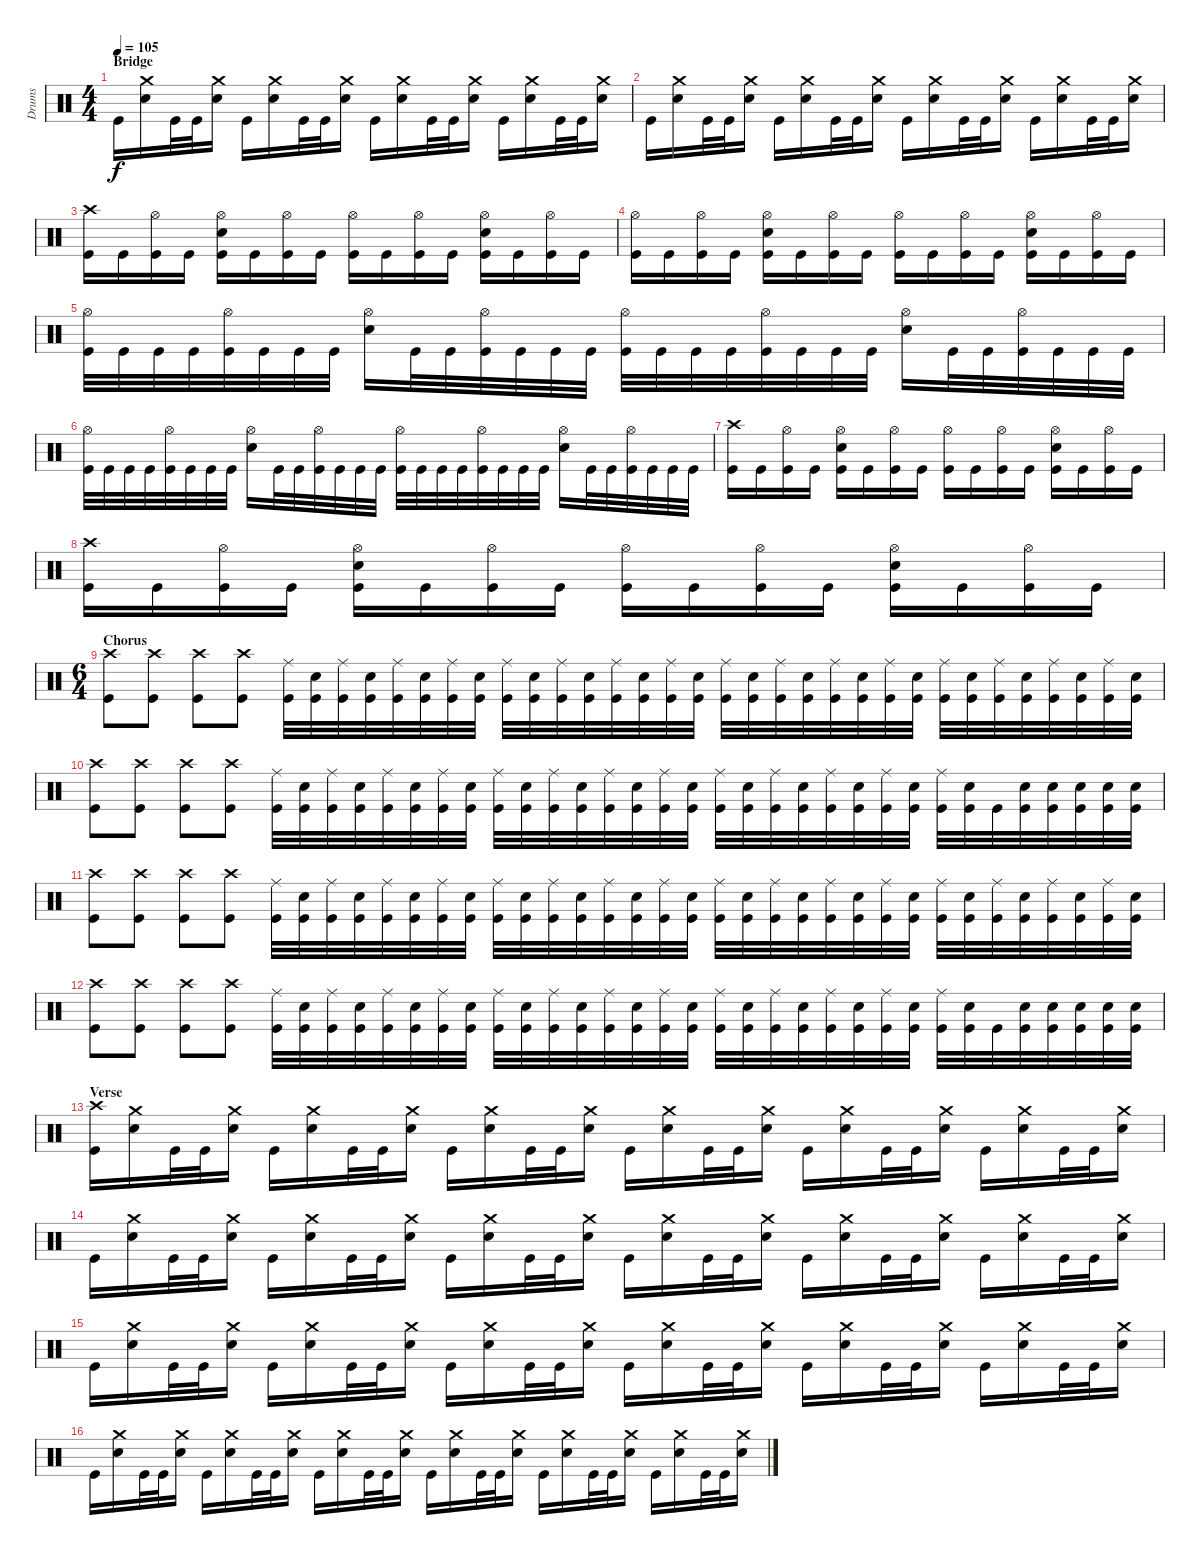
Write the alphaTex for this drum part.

\track ("Drums" "Drums") {instrument percussion}
\staff {score}
\articulation defaults
\ts (4 4)
\section ("" "Bridge")
\tempo 105
\clef neutral
\ks c "Kick (hit)".16{dy f}
("Crash medium (hit)" "Electric Snare (hit)").16 "Kick (hit)".32 "Kick (hit)".32 ("Crash medium (hit)" "Electric Snare (hit)").16 "Kick (hit)".16 ("Crash medium (hit)" "Electric Snare (hit)").16 "Kick (hit)".32 "Kick (hit)".32 ("Crash medium (hit)" "Electric Snare (hit)").16 "Kick (hit)".16 ("Crash medium (hit)" "Electric Snare (hit)").16 "Kick (hit)".32 "Kick (hit)".32 ("Crash medium (hit)" "Electric Snare (hit)").16 "Kick (hit)".16 ("Crash medium (hit)" "Electric Snare (hit)").16 "Kick (hit)".32 "Kick (hit)".32 ("Crash medium (hit)" "Electric Snare (hit)").16 |
"Kick (hit)".16 ("Crash medium (hit)" "Electric Snare (hit)").16 "Kick (hit)".32 "Kick (hit)".32 ("Crash medium (hit)" "Electric Snare (hit)").16 "Kick (hit)".16 ("Crash medium (hit)" "Electric Snare (hit)").16 "Kick (hit)".32 "Kick (hit)".32 ("Crash medium (hit)" "Electric Snare (hit)").16 "Kick (hit)".16 ("Crash medium (hit)" "Electric Snare (hit)").16 "Kick (hit)".32 "Kick (hit)".32 ("Crash medium (hit)" "Electric Snare (hit)").16 "Kick (hit)".16 ("Crash medium (hit)" "Electric Snare (hit)").16 "Kick (hit)".32 "Kick (hit)".32 ("Crash medium (hit)" "Electric Snare (hit)").16 |
("Crash high (hit)" "Kick (hit)").16 "Kick (hit)".16 ("Hi-Hat (open)" "Kick (hit)").16 "Kick (hit)".16 ("Hi-Hat (open)" "Electric Snare (hit)" "Kick (hit)").16 "Kick (hit)".16 ("Hi-Hat (open)" "Kick (hit)").16 "Kick (hit)".16 ("Hi-Hat (open)" "Kick (hit)").16 "Kick (hit)".16 ("Hi-Hat (open)" "Kick (hit)").16 "Kick (hit)".16 ("Hi-Hat (open)" "Electric Snare (hit)" "Kick (hit)").16 "Kick (hit)".16 ("Hi-Hat (open)" "Kick (hit)").16 "Kick (hit)".16 |
("Hi-Hat (open)" "Kick (hit)").16 "Kick (hit)".16 ("Hi-Hat (open)" "Kick (hit)").16 "Kick (hit)".16 ("Hi-Hat (open)" "Electric Snare (hit)" "Kick (hit)").16 "Kick (hit)".16 ("Hi-Hat (open)" "Kick (hit)").16 "Kick (hit)".16 ("Hi-Hat (open)" "Kick (hit)").16 "Kick (hit)".16 ("Hi-Hat (open)" "Kick (hit)").16 "Kick (hit)".16 ("Hi-Hat (open)" "Electric Snare (hit)" "Kick (hit)").16 "Kick (hit)".16 ("Hi-Hat (open)" "Kick (hit)").16 "Kick (hit)".16 |
("Hi-Hat (open)" "Kick (hit)").32 "Kick (hit)".32 "Kick (hit)".32 "Kick (hit)".32 ("Hi-Hat (open)" "Kick (hit)").32 "Kick (hit)".32 "Kick (hit)".32 "Kick (hit)".32 ("Hi-Hat (open)" "Electric Snare (hit)").16 "Kick (hit)".32 "Kick (hit)".32 ("Hi-Hat (open)" "Kick (hit)").32 "Kick (hit)".32 "Kick (hit)".32 "Kick (hit)".32 ("Hi-Hat (open)" "Kick (hit)").32 "Kick (hit)".32 "Kick (hit)".32 "Kick (hit)".32 ("Hi-Hat (open)" "Kick (hit)").32 "Kick (hit)".32 "Kick (hit)".32 "Kick (hit)".32 ("Hi-Hat (open)" "Electric Snare (hit)").16 "Kick (hit)".32 "Kick (hit)".32 ("Hi-Hat (open)" "Kick (hit)").32 "Kick (hit)".32 "Kick (hit)".32 "Kick (hit)".32 |
("Hi-Hat (open)" "Kick (hit)").32 "Kick (hit)".32 "Kick (hit)".32 "Kick (hit)".32 ("Hi-Hat (open)" "Kick (hit)").32 "Kick (hit)".32 "Kick (hit)".32 "Kick (hit)".32 ("Hi-Hat (open)" "Electric Snare (hit)").16 "Kick (hit)".32 "Kick (hit)".32 ("Hi-Hat (open)" "Kick (hit)").32 "Kick (hit)".32 "Kick (hit)".32 "Kick (hit)".32 ("Hi-Hat (open)" "Kick (hit)").32 "Kick (hit)".32 "Kick (hit)".32 "Kick (hit)".32 ("Hi-Hat (open)" "Kick (hit)").32 "Kick (hit)".32 "Kick (hit)".32 "Kick (hit)".32 ("Hi-Hat (open)" "Electric Snare (hit)").16 "Kick (hit)".32 "Kick (hit)".32 ("Hi-Hat (open)" "Kick (hit)").32 "Kick (hit)".32 "Kick (hit)".32 "Kick (hit)".32 |
("Crash high (hit)" "Kick (hit)").16 "Kick (hit)".16 ("Hi-Hat (open)" "Kick (hit)").16 "Kick (hit)".16 ("Hi-Hat (open)" "Electric Snare (hit)" "Kick (hit)").16 "Kick (hit)".16 ("Hi-Hat (open)" "Kick (hit)").16 "Kick (hit)".16 ("Hi-Hat (open)" "Kick (hit)").16 "Kick (hit)".16 ("Hi-Hat (open)" "Kick (hit)").16 "Kick (hit)".16 ("Hi-Hat (open)" "Electric Snare (hit)" "Kick (hit)").16 "Kick (hit)".16 ("Hi-Hat (open)" "Kick (hit)").16 "Kick (hit)".16 |
("Crash high (hit)" "Kick (hit)").16 "Kick (hit)".16 ("Hi-Hat (open)" "Kick (hit)").16 "Kick (hit)".16 ("Hi-Hat (open)" "Electric Snare (hit)" "Kick (hit)").16 "Kick (hit)".16 ("Hi-Hat (open)" "Kick (hit)").16 "Kick (hit)".16 ("Hi-Hat (open)" "Kick (hit)").16 "Kick (hit)".16 ("Hi-Hat (open)" "Kick (hit)").16 "Kick (hit)".16 ("Hi-Hat (open)" "Electric Snare (hit)" "Kick (hit)").16 "Kick (hit)".16 ("Hi-Hat (open)" "Kick (hit)").16 "Kick (hit)".16 |
\ts (6 4)
\section ("" "Chorus")
("Crash high (hit)" "Kick (hit)").8 ("Crash high (hit)" "Kick (hit)").8 ("Crash high (hit)" "Kick (hit)").8 ("Crash high (hit)" "Kick (hit)").8 ("Ride (middle)" "Kick (hit)").32 ("Electric Snare (hit)" "Kick (hit)").32 ("Ride (middle)" "Kick (hit)").32 ("Electric Snare (hit)" "Kick (hit)").32 ("Ride (middle)" "Kick (hit)").32 ("Electric Snare (hit)" "Kick (hit)").32 ("Ride (middle)" "Kick (hit)").32 ("Electric Snare (hit)" "Kick (hit)").32 ("Ride (middle)" "Kick (hit)").32 ("Electric Snare (hit)" "Kick (hit)").32 ("Ride (middle)" "Kick (hit)").32 ("Electric Snare (hit)" "Kick (hit)").32 ("Ride (middle)" "Kick (hit)").32 ("Electric Snare (hit)" "Kick (hit)").32 ("Ride (middle)" "Kick (hit)").32 ("Electric Snare (hit)" "Kick (hit)").32 ("Ride (middle)" "Kick (hit)").32 ("Electric Snare (hit)" "Kick (hit)").32 ("Ride (middle)" "Kick (hit)").32 ("Electric Snare (hit)" "Kick (hit)").32 ("Ride (middle)" "Kick (hit)").32 ("Electric Snare (hit)" "Kick (hit)").32 ("Ride (middle)" "Kick (hit)").32 ("Electric Snare (hit)" "Kick (hit)").32 ("Ride (middle)" "Kick (hit)").32 ("Electric Snare (hit)" "Kick (hit)").32 ("Ride (middle)" "Kick (hit)").32 ("Electric Snare (hit)" "Kick (hit)").32 ("Ride (middle)" "Kick (hit)").32 ("Electric Snare (hit)" "Kick (hit)").32 ("Ride (middle)" "Kick (hit)").32 ("Electric Snare (hit)" "Kick (hit)").32 |
("Crash high (hit)" "Kick (hit)").8 ("Crash high (hit)" "Kick (hit)").8 ("Crash high (hit)" "Kick (hit)").8 ("Crash high (hit)" "Kick (hit)").8 ("Ride (middle)" "Kick (hit)").32 ("Electric Snare (hit)" "Kick (hit)").32 ("Ride (middle)" "Kick (hit)").32 ("Electric Snare (hit)" "Kick (hit)").32 ("Ride (middle)" "Kick (hit)").32 ("Electric Snare (hit)" "Kick (hit)").32 ("Ride (middle)" "Kick (hit)").32 ("Electric Snare (hit)" "Kick (hit)").32 ("Ride (middle)" "Kick (hit)").32 ("Electric Snare (hit)" "Kick (hit)").32 ("Ride (middle)" "Kick (hit)").32 ("Electric Snare (hit)" "Kick (hit)").32 ("Ride (middle)" "Kick (hit)").32 ("Electric Snare (hit)" "Kick (hit)").32 ("Ride (middle)" "Kick (hit)").32 ("Electric Snare (hit)" "Kick (hit)").32 ("Ride (middle)" "Kick (hit)").32 ("Electric Snare (hit)" "Kick (hit)").32 ("Ride (middle)" "Kick (hit)").32 ("Electric Snare (hit)" "Kick (hit)").32 ("Ride (middle)" "Kick (hit)").32 ("Electric Snare (hit)" "Kick (hit)").32 ("Ride (middle)" "Kick (hit)").32 ("Electric Snare (hit)" "Kick (hit)").32 ("Ride (middle)" "Kick (hit)").32 ("Electric Snare (hit)" "Kick (hit)").32 "Kick (hit)".32 ("Electric Snare (hit)" "Kick (hit)").32 ("Electric Snare (hit)" "Kick (hit)").32 ("Electric Snare (hit)" "Kick (hit)").32 ("Electric Snare (hit)" "Kick (hit)").32 ("Electric Snare (hit)" "Kick (hit)").32 |
("Crash high (hit)" "Kick (hit)").8 ("Crash high (hit)" "Kick (hit)").8 ("Crash high (hit)" "Kick (hit)").8 ("Crash high (hit)" "Kick (hit)").8 ("Ride (middle)" "Kick (hit)").32 ("Electric Snare (hit)" "Kick (hit)").32 ("Ride (middle)" "Kick (hit)").32 ("Electric Snare (hit)" "Kick (hit)").32 ("Ride (middle)" "Kick (hit)").32 ("Electric Snare (hit)" "Kick (hit)").32 ("Ride (middle)" "Kick (hit)").32 ("Electric Snare (hit)" "Kick (hit)").32 ("Ride (middle)" "Kick (hit)").32 ("Electric Snare (hit)" "Kick (hit)").32 ("Ride (middle)" "Kick (hit)").32 ("Electric Snare (hit)" "Kick (hit)").32 ("Ride (middle)" "Kick (hit)").32 ("Electric Snare (hit)" "Kick (hit)").32 ("Ride (middle)" "Kick (hit)").32 ("Electric Snare (hit)" "Kick (hit)").32 ("Ride (middle)" "Kick (hit)").32 ("Electric Snare (hit)" "Kick (hit)").32 ("Ride (middle)" "Kick (hit)").32 ("Electric Snare (hit)" "Kick (hit)").32 ("Ride (middle)" "Kick (hit)").32 ("Electric Snare (hit)" "Kick (hit)").32 ("Ride (middle)" "Kick (hit)").32 ("Electric Snare (hit)" "Kick (hit)").32 ("Ride (middle)" "Kick (hit)").32 ("Electric Snare (hit)" "Kick (hit)").32 ("Ride (middle)" "Kick (hit)").32 ("Electric Snare (hit)" "Kick (hit)").32 ("Ride (middle)" "Kick (hit)").32 ("Electric Snare (hit)" "Kick (hit)").32 ("Ride (middle)" "Kick (hit)").32 ("Electric Snare (hit)" "Kick (hit)").32 |
("Crash high (hit)" "Kick (hit)").8 ("Crash high (hit)" "Kick (hit)").8 ("Crash high (hit)" "Kick (hit)").8 ("Crash high (hit)" "Kick (hit)").8 ("Ride (middle)" "Kick (hit)").32 ("Electric Snare (hit)" "Kick (hit)").32 ("Ride (middle)" "Kick (hit)").32 ("Electric Snare (hit)" "Kick (hit)").32 ("Ride (middle)" "Kick (hit)").32 ("Electric Snare (hit)" "Kick (hit)").32 ("Ride (middle)" "Kick (hit)").32 ("Electric Snare (hit)" "Kick (hit)").32 ("Ride (middle)" "Kick (hit)").32 ("Electric Snare (hit)" "Kick (hit)").32 ("Ride (middle)" "Kick (hit)").32 ("Electric Snare (hit)" "Kick (hit)").32 ("Ride (middle)" "Kick (hit)").32 ("Electric Snare (hit)" "Kick (hit)").32 ("Ride (middle)" "Kick (hit)").32 ("Electric Snare (hit)" "Kick (hit)").32 ("Ride (middle)" "Kick (hit)").32 ("Electric Snare (hit)" "Kick (hit)").32 ("Ride (middle)" "Kick (hit)").32 ("Electric Snare (hit)" "Kick (hit)").32 ("Ride (middle)" "Kick (hit)").32 ("Electric Snare (hit)" "Kick (hit)").32 ("Ride (middle)" "Kick (hit)").32 ("Electric Snare (hit)" "Kick (hit)").32 ("Ride (middle)" "Kick (hit)").32 ("Electric Snare (hit)" "Kick (hit)").32 "Kick (hit)".32 ("Electric Snare (hit)" "Kick (hit)").32 ("Electric Snare (hit)" "Kick (hit)").32 ("Electric Snare (hit)" "Kick (hit)").32 ("Electric Snare (hit)" "Kick (hit)").32 ("Electric Snare (hit)" "Kick (hit)").32 |
\section ("" "Verse")
("Crash high (hit)" "Kick (hit)").16 ("Crash medium (hit)" "Electric Snare (hit)").16 "Kick (hit)".32 "Kick (hit)".32 ("Crash medium (hit)" "Electric Snare (hit)").16 "Kick (hit)".16 ("Crash medium (hit)" "Electric Snare (hit)").16 "Kick (hit)".32 "Kick (hit)".32 ("Crash medium (hit)" "Electric Snare (hit)").16 "Kick (hit)".16 ("Crash medium (hit)" "Electric Snare (hit)").16 "Kick (hit)".32 "Kick (hit)".32 ("Crash medium (hit)" "Electric Snare (hit)").16 "Kick (hit)".16 ("Crash medium (hit)" "Electric Snare (hit)").16 "Kick (hit)".32 "Kick (hit)".32 ("Crash medium (hit)" "Electric Snare (hit)").16 "Kick (hit)".16 ("Crash medium (hit)" "Electric Snare (hit)").16 "Kick (hit)".32 "Kick (hit)".32 ("Crash medium (hit)" "Electric Snare (hit)").16 "Kick (hit)".16 ("Crash medium (hit)" "Electric Snare (hit)").16 "Kick (hit)".32 "Kick (hit)".32 ("Crash medium (hit)" "Electric Snare (hit)").16 |
"Kick (hit)".16 ("Crash medium (hit)" "Electric Snare (hit)").16 "Kick (hit)".32 "Kick (hit)".32 ("Crash medium (hit)" "Electric Snare (hit)").16 "Kick (hit)".16 ("Crash medium (hit)" "Electric Snare (hit)").16 "Kick (hit)".32 "Kick (hit)".32 ("Crash medium (hit)" "Electric Snare (hit)").16 "Kick (hit)".16 ("Crash medium (hit)" "Electric Snare (hit)").16 "Kick (hit)".32 "Kick (hit)".32 ("Crash medium (hit)" "Electric Snare (hit)").16 "Kick (hit)".16 ("Crash medium (hit)" "Electric Snare (hit)").16 "Kick (hit)".32 "Kick (hit)".32 ("Crash medium (hit)" "Electric Snare (hit)").16 "Kick (hit)".16 ("Crash medium (hit)" "Electric Snare (hit)").16 "Kick (hit)".32 "Kick (hit)".32 ("Crash medium (hit)" "Electric Snare (hit)").16 "Kick (hit)".16 ("Crash medium (hit)" "Electric Snare (hit)").16 "Kick (hit)".32 "Kick (hit)".32 ("Crash medium (hit)" "Electric Snare (hit)").16 |
"Kick (hit)".16 ("Crash medium (hit)" "Electric Snare (hit)").16 "Kick (hit)".32 "Kick (hit)".32 ("Crash medium (hit)" "Electric Snare (hit)").16 "Kick (hit)".16 ("Crash medium (hit)" "Electric Snare (hit)").16 "Kick (hit)".32 "Kick (hit)".32 ("Crash medium (hit)" "Electric Snare (hit)").16 "Kick (hit)".16 ("Crash medium (hit)" "Electric Snare (hit)").16 "Kick (hit)".32 "Kick (hit)".32 ("Crash medium (hit)" "Electric Snare (hit)").16 "Kick (hit)".16 ("Crash medium (hit)" "Electric Snare (hit)").16 "Kick (hit)".32 "Kick (hit)".32 ("Crash medium (hit)" "Electric Snare (hit)").16 "Kick (hit)".16 ("Crash medium (hit)" "Electric Snare (hit)").16 "Kick (hit)".32 "Kick (hit)".32 ("Crash medium (hit)" "Electric Snare (hit)").16 "Kick (hit)".16 ("Crash medium (hit)" "Electric Snare (hit)").16 "Kick (hit)".32 "Kick (hit)".32 ("Crash medium (hit)" "Electric Snare (hit)").16 |
"Kick (hit)".16 ("Crash medium (hit)" "Electric Snare (hit)").16 "Kick (hit)".32 "Kick (hit)".32 ("Crash medium (hit)" "Electric Snare (hit)").16 "Kick (hit)".16 ("Crash medium (hit)" "Electric Snare (hit)").16 "Kick (hit)".32 "Kick (hit)".32 ("Crash medium (hit)" "Electric Snare (hit)").16 "Kick (hit)".16 ("Crash medium (hit)" "Electric Snare (hit)").16 "Kick (hit)".32 "Kick (hit)".32 ("Crash medium (hit)" "Electric Snare (hit)").16 "Kick (hit)".16 ("Crash medium (hit)" "Electric Snare (hit)").16 "Kick (hit)".32 "Kick (hit)".32 ("Crash medium (hit)" "Electric Snare (hit)").16 "Kick (hit)".16 ("Crash medium (hit)" "Electric Snare (hit)").16 "Kick (hit)".32 "Kick (hit)".32 ("Crash medium (hit)" "Electric Snare (hit)").16 "Kick (hit)".16 ("Crash medium (hit)" "Electric Snare (hit)").16 "Kick (hit)".32 "Kick (hit)".32 ("Crash medium (hit)" "Electric Snare (hit)").16
